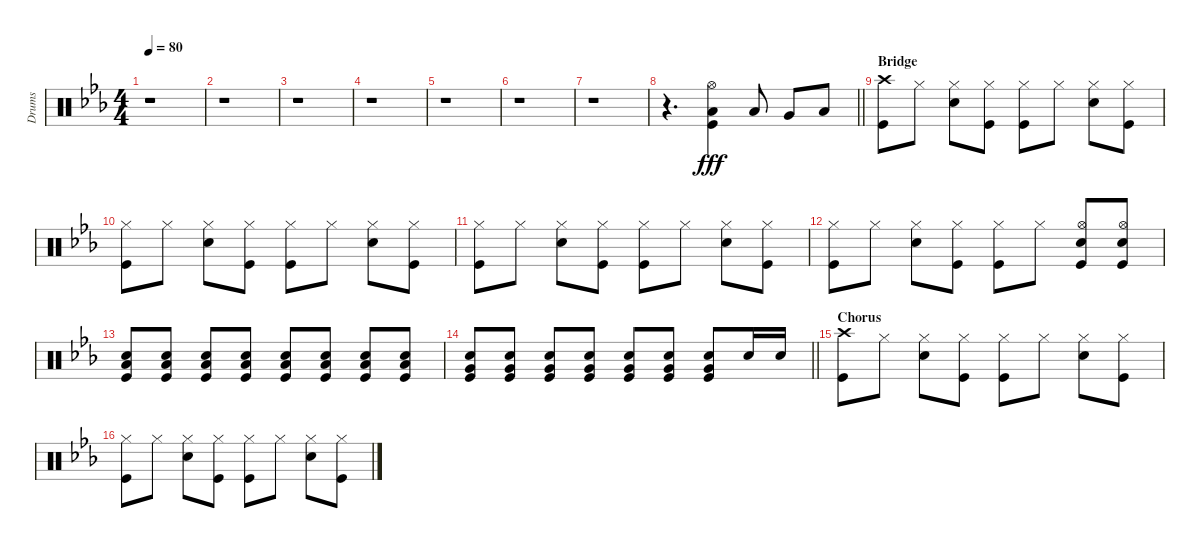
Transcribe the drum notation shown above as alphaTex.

\track ("Drums" "Drums") {instrument percussion}
\staff {score}
\articulation defaults
\ts (4 4)
\tempo 80
\clef neutral
\ks eb
r.1{dy fff} |
r.1 |
r.1 |
r.1 |
r.1 |
r.1 |
r.1 |
\barLineRight lightlight
r.4{d} ("Kick (hit)" "Low Floor Tom (hit)" "Hi-Hat (open)").4 "Low Tom (hit)".8 "Very Low Tom (hit)".8 "Low Floor Tom (hit)".8 |
\section ("" "Bridge")
("Crash high (hit)" "Kick (hit)").8 "Hi-Hat (closed)".8 ("Hi-Hat (closed)" "Snare (hit) 2").8 ("Hi-Hat (closed)" "Kick (hit)").8 ("Hi-Hat (closed)" "Kick (hit)").8 "Hi-Hat (closed)".8 ("Snare (hit) 2" "Hi-Hat (closed)").8 ("Hi-Hat (closed)" "Kick (hit)").8 |
("Kick (hit)" "Hi-Hat (closed)").8 "Hi-Hat (closed)".8 ("Snare (hit) 2" "Hi-Hat (closed)").8 ("Kick (hit)" "Hi-Hat (closed)").8 ("Kick (hit)" "Hi-Hat (closed)").8 "Hi-Hat (closed)".8 ("Snare (hit) 2" "Hi-Hat (closed)").8 ("Kick (hit)" "Hi-Hat (closed)").8 |
("Kick (hit)" "Hi-Hat (closed)").8 "Hi-Hat (closed)".8 ("Snare (hit) 2" "Hi-Hat (closed)").8 ("Kick (hit)" "Hi-Hat (closed)").8 ("Kick (hit)" "Hi-Hat (closed)").8 "Hi-Hat (closed)".8 ("Snare (hit) 2" "Hi-Hat (closed)").8 ("Kick (hit)" "Hi-Hat (closed)").8 |
("Kick (hit)" "Hi-Hat (closed)").8 "Hi-Hat (closed)".8 ("Snare (hit) 2" "Hi-Hat (closed)").8 ("Kick (hit)" "Hi-Hat (closed)").8 ("Kick (hit)" "Hi-Hat (closed)").8 "Hi-Hat (closed)".8 ("Hi-Hat (open)" "Kick (hit)" "Snare (hit) 2").8 ("Hi-Hat (open)" "Snare (hit) 2" "Kick (hit)").8 |
("Low Floor Tom (hit)" "Snare (hit) 2" "Kick (hit)").8 ("Low Floor Tom (hit)" "Kick (hit)" "Snare (hit) 2").8 ("Low Floor Tom (hit)" "Snare (hit) 2" "Kick (hit)").8 ("Low Floor Tom (hit)" "Kick (hit)" "Snare (hit) 2").8 ("Low Floor Tom (hit)" "Kick (hit)" "Snare (hit) 2").8 ("Low Floor Tom (hit)" "Snare (hit) 2" "Kick (hit)").8 ("Low Floor Tom (hit)" "Snare (hit) 2" "Kick (hit)").8 ("Low Floor Tom (hit)" "Kick (hit)" "Snare (hit) 2").8 |
\barLineRight lightlight
("Very Low Tom (hit)" "Snare (hit) 2" "Kick (hit)").8 ("Very Low Tom (hit)" "Snare (hit) 2" "Kick (hit)").8 ("Very Low Tom (hit)" "Snare (hit) 2" "Kick (hit)").8 ("Very Low Tom (hit)" "Kick (hit)" "Snare (hit) 2").8 ("Very Low Tom (hit)" "Kick (hit)" "Snare (hit) 2").8 ("Very Low Tom (hit)" "Snare (hit) 2" "Kick (hit)").8 ("Very Low Tom (hit)" "Snare (hit) 2" "Kick (hit)").8 "Snare (hit) 2".16 "Snare (hit) 2".16 |
\section ("" "Chorus")
("Crash high (hit)" "Kick (hit)").8 "Hi-Hat (closed)".8 ("Snare (hit) 2" "Hi-Hat (closed)").8 ("Kick (hit)" "Hi-Hat (closed)").8 ("Kick (hit)" "Hi-Hat (closed)").8 "Hi-Hat (closed)".8 ("Snare (hit) 2" "Hi-Hat (closed)").8 ("Kick (hit)" "Hi-Hat (closed)").8 |
("Kick (hit)" "Hi-Hat (closed)").8 "Hi-Hat (closed)".8 ("Snare (hit) 2" "Hi-Hat (closed)").8 ("Kick (hit)" "Hi-Hat (closed)").8 ("Kick (hit)" "Hi-Hat (closed)").8 "Hi-Hat (closed)".8 ("Snare (hit) 2" "Hi-Hat (closed)").8 ("Kick (hit)" "Hi-Hat (closed)").8
